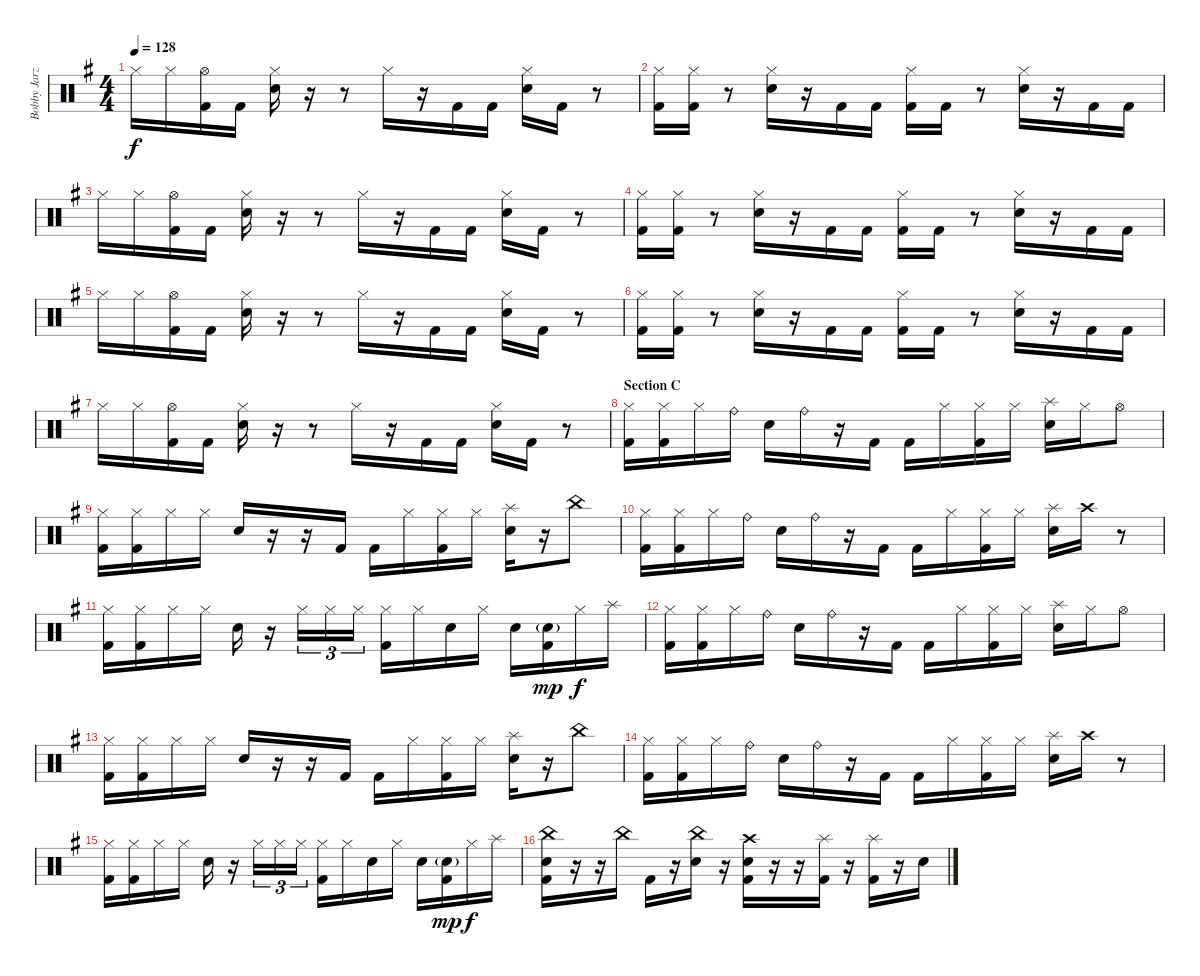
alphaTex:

\track ("Bobby Jarzombek" "Bobby Jarz") {instrument percussion}
\staff {score}
\articulation defaults
\ts (4 4)
\tempo 128
\clef neutral
\ks eminor "Hi-Hat (closed)".16{dy f} "Hi-Hat (closed)".16
("Hi-Hat (open)" "Kick (hit) 2").16 "Kick (hit) 2".16 ("Hi-Hat (closed)" "Electric Snare (hit)").16 r.16 r.8 "Hi-Hat (closed)".16 r.16 "Kick (hit) 2".16 "Kick (hit) 2".16 ("Hi-Hat (closed)" "Electric Snare (hit)").16 "Kick (hit) 2".16 r.8 |
("Hi-Hat (closed)" "Kick (hit) 2").16 ("Hi-Hat (closed)" "Kick (hit) 2").16 r.8 ("Hi-Hat (closed)" "Electric Snare (hit)").16 r.16 "Kick (hit) 2".16 "Kick (hit) 2".16 ("Hi-Hat (closed)" "Kick (hit) 2").16 "Kick (hit) 2".16 r.8 ("Hi-Hat (closed)" "Electric Snare (hit)").16 r.16 "Kick (hit) 2".16 "Kick (hit) 2".16 |
"Hi-Hat (closed)".16 "Hi-Hat (closed)".16 ("Hi-Hat (open)" "Kick (hit) 2").16 "Kick (hit) 2".16 ("Hi-Hat (closed)" "Electric Snare (hit)").16 r.16 r.8 "Hi-Hat (closed)".16 r.16 "Kick (hit) 2".16 "Kick (hit) 2".16 ("Hi-Hat (closed)" "Electric Snare (hit)").16 "Kick (hit) 2".16 r.8 |
("Hi-Hat (closed)" "Kick (hit) 2").16 ("Hi-Hat (closed)" "Kick (hit) 2").16 r.8 ("Hi-Hat (closed)" "Electric Snare (hit)").16 r.16 "Kick (hit) 2".16 "Kick (hit) 2".16 ("Hi-Hat (closed)" "Kick (hit) 2").16 "Kick (hit) 2".16 r.8 ("Hi-Hat (closed)" "Electric Snare (hit)").16 r.16 "Kick (hit) 2".16 "Kick (hit) 2".16 |
"Hi-Hat (closed)".16 "Hi-Hat (closed)".16 ("Hi-Hat (open)" "Kick (hit) 2").16 "Kick (hit) 2".16 ("Hi-Hat (closed)" "Electric Snare (hit)").16 r.16 r.8 "Hi-Hat (closed)".16 r.16 "Kick (hit) 2".16 "Kick (hit) 2".16 ("Hi-Hat (closed)" "Electric Snare (hit)").16 "Kick (hit) 2".16 r.8 |
("Hi-Hat (closed)" "Kick (hit) 2").16 ("Hi-Hat (closed)" "Kick (hit) 2").16 r.8 ("Hi-Hat (closed)" "Electric Snare (hit)").16 r.16 "Kick (hit) 2".16 "Kick (hit) 2".16 ("Hi-Hat (closed)" "Kick (hit) 2").16 "Kick (hit) 2".16 r.8 ("Hi-Hat (closed)" "Electric Snare (hit)").16 r.16 "Kick (hit) 2".16 "Kick (hit) 2".16 |
"Hi-Hat (closed)".16 "Hi-Hat (closed)".16 ("Hi-Hat (open)" "Kick (hit) 2").16 "Kick (hit) 2".16 ("Hi-Hat (closed)" "Electric Snare (hit)").16 r.16 r.8 "Hi-Hat (closed)".16 r.16 "Kick (hit) 2".16 "Kick (hit) 2".16 ("Hi-Hat (closed)" "Electric Snare (hit)").16 "Kick (hit) 2".16 r.8 |
\section ("" "Section C")
("Hi-Hat (closed)" "Kick (hit) 2").16 ("Hi-Hat (closed)" "Kick (hit) 2").16 "Hi-Hat (closed)".16 "Ride (bell)".16 "Electric Snare (hit)".16 "Ride (bell)".16 r.16 "Kick (hit) 2".16 "Kick (hit) 2".16 "Hi-Hat (closed)".16 ("Hi-Hat (closed)" "Kick (hit) 2").16 "Hi-Hat (closed)".16 ("Splash (hit)" "Electric Snare (hit)").16 "Hi-Hat (closed)".16 "Hi-Hat (open)".8 |
("Hi-Hat (closed)" "Kick (hit) 2").16 ("Hi-Hat (closed)" "Kick (hit) 2").16 "Hi-Hat (closed)".16 "Hi-Hat (closed)".16 "Electric Snare (hit)".16 r.16 r.16 "Kick (hit) 2".16 "Kick (hit) 2".16 "Hi-Hat (closed)".16 ("Hi-Hat (closed)" "Kick (hit) 2").16 "Hi-Hat (closed)".16 ("Splash (hit)" "Electric Snare (hit)").16 r.16 "China (hit)".8 |
("Hi-Hat (closed)" "Kick (hit) 2").16 ("Hi-Hat (closed)" "Kick (hit) 2").16 "Hi-Hat (closed)".16 "Ride (bell)".16 "Electric Snare (hit)".16 "Ride (bell)".16 r.16 "Kick (hit) 2".16 "Kick (hit) 2".16 "Hi-Hat (closed)".16 ("Hi-Hat (closed)" "Kick (hit) 2").16 "Hi-Hat (closed)".16 ("Splash (hit)" "Electric Snare (hit)").16 "Crash high (hit)".16 r.8 |
("Hi-Hat (closed)" "Kick (hit) 2").16 ("Hi-Hat (closed)" "Kick (hit) 2").16 "Hi-Hat (closed)".16 "Hi-Hat (closed)".16 "Electric Snare (hit)".16 r.16 "Hi-Hat (closed)".16{tu (3 2)} "Hi-Hat (closed)".16{tu (3 2)} "Hi-Hat (closed)".16{tu (3 2)} ("Hi-Hat (closed)" "Kick (hit) 2").16 "Hi-Hat (closed)".16 "Electric Snare (hit)".16 "Hi-Hat (closed)".16 "Electric Snare (hit)".16 ("Electric Snare (hit)"{g} "Kick (hit) 2").16{dy mp} "Hi-Hat (closed)".16{dy f} "Splash (hit)".16 |
("Hi-Hat (closed)" "Kick (hit) 2").16 ("Hi-Hat (closed)" "Kick (hit) 2").16 "Hi-Hat (closed)".16 "Ride (bell)".16 "Electric Snare (hit)".16 "Ride (bell)".16 r.16 "Kick (hit) 2".16 "Kick (hit) 2".16 "Hi-Hat (closed)".16 ("Hi-Hat (closed)" "Kick (hit) 2").16 "Hi-Hat (closed)".16 ("Splash (hit)" "Electric Snare (hit)").16 "Hi-Hat (closed)".16 "Hi-Hat (open)".8 |
("Hi-Hat (closed)" "Kick (hit) 2").16 ("Hi-Hat (closed)" "Kick (hit) 2").16 "Hi-Hat (closed)".16 "Hi-Hat (closed)".16 "Electric Snare (hit)".16 r.16 r.16 "Kick (hit) 2".16 "Kick (hit) 2".16 "Hi-Hat (closed)".16 ("Hi-Hat (closed)" "Kick (hit) 2").16 "Hi-Hat (closed)".16 ("Splash (hit)" "Electric Snare (hit)").16 r.16 "China (hit)".8 |
("Hi-Hat (closed)" "Kick (hit) 2").16 ("Hi-Hat (closed)" "Kick (hit) 2").16 "Hi-Hat (closed)".16 "Ride (bell)".16 "Electric Snare (hit)".16 "Ride (bell)".16 r.16 "Kick (hit) 2".16 "Kick (hit) 2".16 "Hi-Hat (closed)".16 ("Hi-Hat (closed)" "Kick (hit) 2").16 "Hi-Hat (closed)".16 ("Splash (hit)" "Electric Snare (hit)").16 "Crash high (hit)".16 r.8 |
("Hi-Hat (closed)" "Kick (hit) 2").16 ("Hi-Hat (closed)" "Kick (hit) 2").16 "Hi-Hat (closed)".16 "Hi-Hat (closed)".16 "Electric Snare (hit)".16 r.16 "Hi-Hat (closed)".16{tu (3 2)} "Hi-Hat (closed)".16{tu (3 2)} "Hi-Hat (closed)".16{tu (3 2)} ("Hi-Hat (closed)" "Kick (hit) 2").16 "Hi-Hat (closed)".16 "Electric Snare (hit)".16 "Hi-Hat (closed)".16 "Electric Snare (hit)".16 ("Electric Snare (hit)"{g} "Kick (hit) 2").16{dy mp} "Hi-Hat (closed)".16{dy f} "Splash (hit)".16 |
("China (hit)" "Electric Snare (hit)" "Kick (hit) 2").16 r.16 r.16 "China (hit)".16 "Kick (hit) 2".16 r.16 ("China (hit)" "Electric Snare (hit)").16 r.16 ("Crash high (hit)" "Electric Snare (hit)" "Kick (hit) 2").16 r.16 r.16 ("Splash (hit)" "Kick (hit) 2").16 r.16 ("Splash (hit)" "Kick (hit) 2").16 r.16 "Electric Snare (hit)".16
